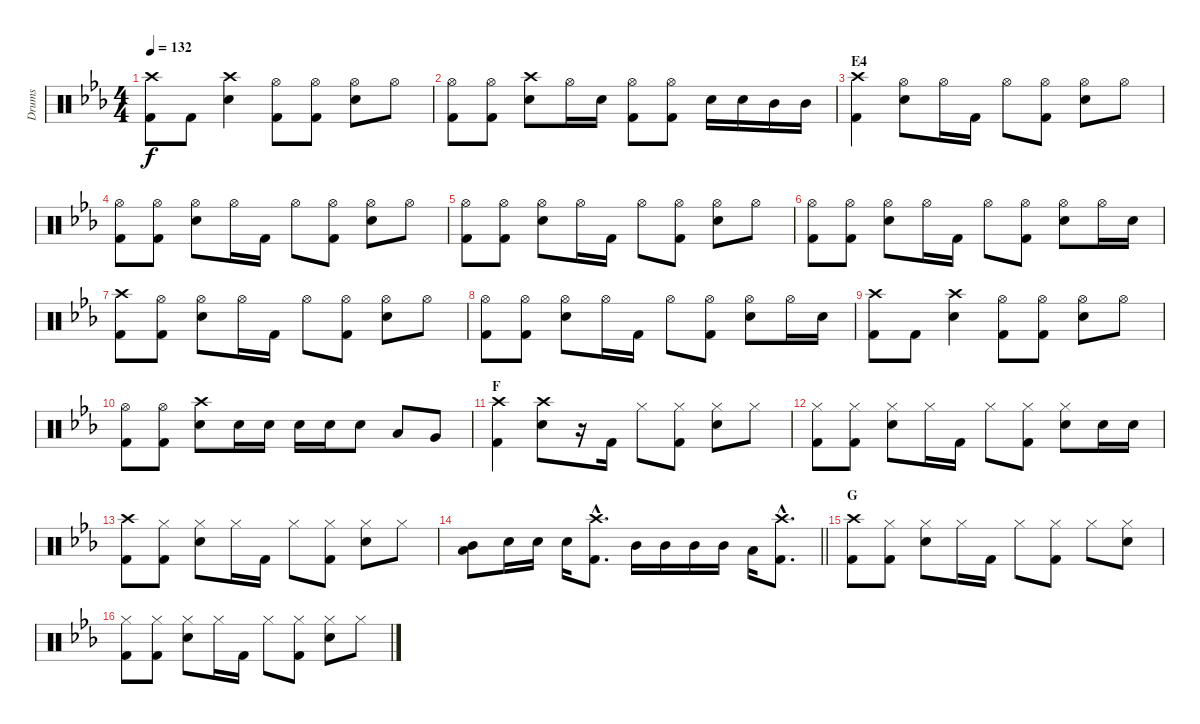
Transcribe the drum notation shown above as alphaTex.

\track ("Drums" "Drums") {instrument percussion}
\staff {score}
\articulation defaults
\ts (4 4)
\tempo 132
\clef neutral
\ks eb
("Crash high (hit)" "Kick (hit) 2").8{dy f} "Kick (hit) 2".8 ("Crash high (hit)" "Snare (hit) 2").4 ("Hi-Hat (open)" "Kick (hit) 2").8 ("Hi-Hat (open)" "Kick (hit) 2").8 ("Hi-Hat (open)" "Snare (hit) 2").8 "Hi-Hat (open)".8 |
("Hi-Hat (open)" "Kick (hit) 2").8 ("Hi-Hat (open)" "Kick (hit) 2").8 ("Crash high (hit)" "Snare (hit) 2").8 "Hi-Hat (open)".16 "Snare (hit) 2".16 ("Hi-Hat (open)" "Kick (hit) 2").8 ("Hi-Hat (open)" "Kick (hit) 2").8 "Snare (hit) 2".16 "Snare (hit) 2".16 "Mid Tom (hit)".16 "Mid Tom (hit)".16 |
\section ("" "E4")
("Crash high (hit)" "Kick (hit) 2").4 ("Hi-Hat (open)" "Snare (hit) 2").8 "Hi-Hat (open)".16 "Kick (hit) 2".16 "Hi-Hat (open)".8 ("Hi-Hat (open)" "Kick (hit) 2").8 ("Hi-Hat (open)" "Snare (hit) 2").8 "Hi-Hat (open)".8 |
("Hi-Hat (open)" "Kick (hit) 2").8 ("Hi-Hat (open)" "Kick (hit) 2").8 ("Hi-Hat (open)" "Snare (hit) 2").8 "Hi-Hat (open)".16 "Kick (hit) 2".16 "Hi-Hat (open)".8 ("Hi-Hat (open)" "Kick (hit) 2").8 ("Hi-Hat (open)" "Snare (hit) 2").8 "Hi-Hat (open)".8 |
("Hi-Hat (open)" "Kick (hit) 2").8 ("Hi-Hat (open)" "Kick (hit) 2").8 ("Hi-Hat (open)" "Snare (hit) 2").8 "Hi-Hat (open)".16 "Kick (hit) 2".16 "Hi-Hat (open)".8 ("Hi-Hat (open)" "Kick (hit) 2").8 ("Hi-Hat (open)" "Snare (hit) 2").8 "Hi-Hat (open)".8 |
("Hi-Hat (open)" "Kick (hit) 2").8 ("Hi-Hat (open)" "Kick (hit) 2").8 ("Hi-Hat (open)" "Snare (hit) 2").8 "Hi-Hat (open)".16 "Kick (hit) 2".16 "Hi-Hat (open)".8 ("Hi-Hat (open)" "Kick (hit) 2").8 ("Hi-Hat (open)" "Snare (hit) 2").8 "Hi-Hat (open)".16 "Snare (hit) 2".16 |
("Crash high (hit)" "Kick (hit) 2").8 ("Hi-Hat (open)" "Kick (hit) 2").8 ("Hi-Hat (open)" "Snare (hit) 2").8 "Hi-Hat (open)".16 "Kick (hit) 2".16 "Hi-Hat (open)".8 ("Hi-Hat (open)" "Kick (hit) 2").8 ("Hi-Hat (open)" "Snare (hit) 2").8 "Hi-Hat (open)".8 |
("Hi-Hat (open)" "Kick (hit) 2").8 ("Hi-Hat (open)" "Kick (hit) 2").8 ("Hi-Hat (open)" "Snare (hit) 2").8 "Hi-Hat (open)".16 "Kick (hit) 2".16 "Hi-Hat (open)".8 ("Hi-Hat (open)" "Kick (hit) 2").8 ("Hi-Hat (open)" "Snare (hit) 2").8 "Hi-Hat (open)".16 "Snare (hit) 2".16 |
("Crash high (hit)" "Kick (hit) 2").8 "Kick (hit) 2".8 ("Crash high (hit)" "Snare (hit) 2").4 ("Hi-Hat (open)" "Kick (hit) 2").8 ("Hi-Hat (open)" "Kick (hit) 2").8 ("Hi-Hat (open)" "Snare (hit) 2").8 "Hi-Hat (open)".8 |
("Hi-Hat (open)" "Kick (hit) 2").8 ("Hi-Hat (open)" "Kick (hit) 2").8 ("Crash high (hit)" "Snare (hit) 2").8 "Snare (hit) 2".16 "Snare (hit) 2".16 "Snare (hit) 2".16 "Snare (hit) 2".16 "Snare (hit) 2".8 "Low Tom (hit)".8 "Very Low Tom (hit)".8 |
\section ("" "F")
("Crash high (hit)" "Kick (hit) 2").4 ("Crash high (hit)" "Snare (hit) 2").8 r.16 "Kick (hit) 2".16 "Hi-Hat (closed)".8 ("Hi-Hat (closed)" "Kick (hit) 2").8 ("Hi-Hat (closed)" "Snare (hit) 2").8 "Hi-Hat (closed)".8 |
("Hi-Hat (closed)" "Kick (hit) 2").8 ("Hi-Hat (closed)" "Kick (hit) 2").8 ("Hi-Hat (closed)" "Snare (hit) 2").8 "Hi-Hat (closed)".16 "Kick (hit) 2".16 "Hi-Hat (closed)".8 ("Hi-Hat (closed)" "Kick (hit) 2").8 ("Hi-Hat (closed)" "Snare (hit) 2").8 "Snare (hit) 2".16 "Snare (hit) 2".16 |
("Crash high (hit)" "Kick (hit) 2").8 ("Hi-Hat (closed)" "Kick (hit) 2").8 ("Hi-Hat (closed)" "Snare (hit) 2").8 "Hi-Hat (closed)".16 "Kick (hit) 2".16 "Hi-Hat (closed)".8 ("Hi-Hat (closed)" "Kick (hit) 2").8 ("Hi-Hat (closed)" "Snare (hit) 2").8 "Hi-Hat (closed)".8 |
\barLineRight lightlight
("Mid Tom (hit)" "Low Tom (hit)").8 "Snare (hit) 2".16 "Snare (hit) 2".16 "Snare (hit) 2".16 ("Crash high (hit)"{hac} "Kick (hit) 2"{hac}).8{d} "Mid Tom (hit)".16 "Mid Tom (hit)".16 "Mid Tom (hit)".16 "Mid Tom (hit)".16 "Low Tom (hit)".16 ("Crash high (hit)"{hac} "Kick (hit) 2"{hac}).8{d} |
\section ("" "G")
("Crash high (hit)" "Kick (hit) 2").8 ("Hi-Hat (closed)" "Kick (hit) 2").8 ("Hi-Hat (closed)" "Snare (hit) 2").8 "Hi-Hat (closed)".16 "Kick (hit) 2".16 "Hi-Hat (closed)".8 ("Hi-Hat (closed)" "Kick (hit) 2").8 "Hi-Hat (closed)".8 ("Hi-Hat (closed)" "Snare (hit) 2").8 |
("Hi-Hat (closed)" "Kick (hit) 2").8 ("Hi-Hat (closed)" "Kick (hit) 2").8 ("Hi-Hat (closed)" "Snare (hit) 2").8 "Hi-Hat (closed)".16 "Kick (hit) 2".16 "Hi-Hat (closed)".8 ("Hi-Hat (closed)" "Kick (hit) 2").8 ("Hi-Hat (closed)" "Snare (hit) 2").8 "Hi-Hat (closed)".8
